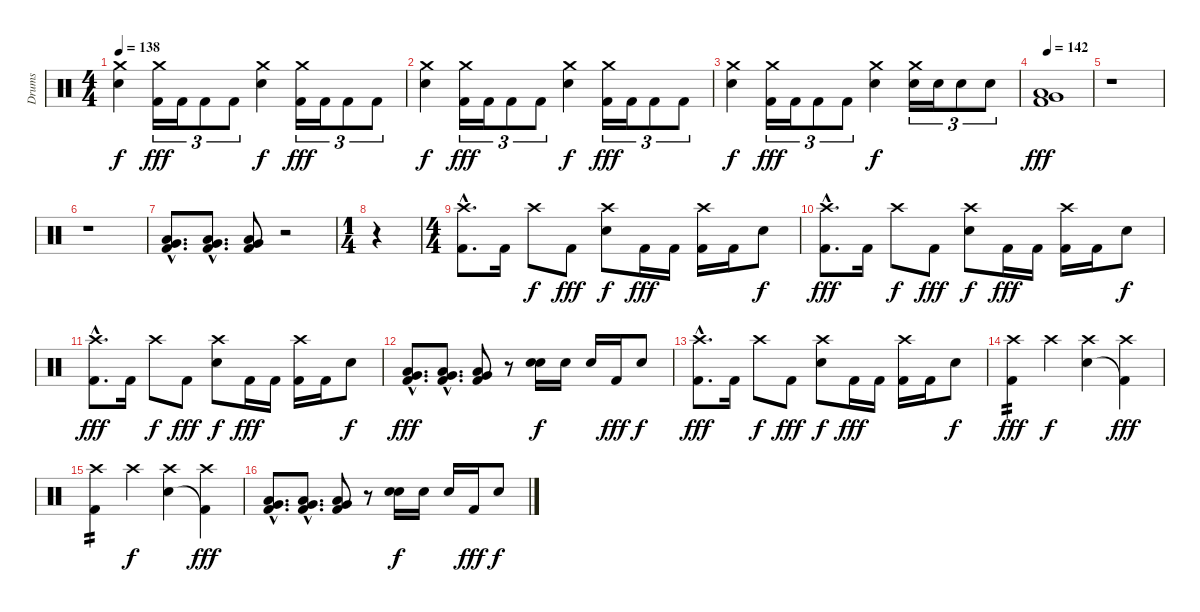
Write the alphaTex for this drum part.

\track ("Drums" "Drums") {instrument percussion}
\staff {score}
\articulation defaults
\ts (4 4)
\tempo 138
\clef neutral
\ks c
("Crash medium (hit)" "Electric Snare (hit)").4{dy f} ("Crash medium (hit)" "Kick (hit) 2").16{tu (3 2) dy fff} "Kick (hit) 2".16{tu (3 2)} "Kick (hit) 2".8{tu (3 2)} "Kick (hit) 2".8{tu (3 2)} ("Crash medium (hit)" "Electric Snare (hit)").4{dy f} ("Crash medium (hit)" "Kick (hit) 2").16{tu (3 2) dy fff} "Kick (hit) 2".16{tu (3 2)} "Kick (hit) 2".8{tu (3 2)} "Kick (hit) 2".8{tu (3 2)} |
("Crash medium (hit)" "Electric Snare (hit)").4{dy f} ("Crash medium (hit)" "Kick (hit) 2").16{tu (3 2) dy fff} "Kick (hit) 2".16{tu (3 2)} "Kick (hit) 2".8{tu (3 2)} "Kick (hit) 2".8{tu (3 2)} ("Crash medium (hit)" "Electric Snare (hit)").4{dy f} ("Crash medium (hit)" "Kick (hit) 2").16{tu (3 2) dy fff} "Kick (hit) 2".16{tu (3 2)} "Kick (hit) 2".8{tu (3 2)} "Kick (hit) 2".8{tu (3 2)} |
("Crash medium (hit)" "Electric Snare (hit)").4{dy f} ("Crash medium (hit)" "Kick (hit) 2").16{tu (3 2) dy fff} "Kick (hit) 2".16{tu (3 2)} "Kick (hit) 2".8{tu (3 2)} "Kick (hit) 2".8{tu (3 2)} ("Crash medium (hit)" "Electric Snare (hit)").4{dy f} ("Crash medium (hit)" "Electric Snare (hit)").16{tu (3 2)} "Electric Snare (hit)".16{tu (3 2)} "Electric Snare (hit)".8{tu (3 2)} "Electric Snare (hit)".8{tu (3 2)} |
\tempo 142
("Low Tom (hit)" "Very Low Tom (hit)" "Kick (hit) 2").1{dy fff} |
r.1 |
r.1 |
("Low Tom (hit)"{hac} "Very Low Tom (hit)"{hac} "Kick (hit) 2"{hac}).8{d} ("Low Tom (hit)"{hac} "Very Low Tom (hit)"{hac} "Kick (hit) 2"{hac}).8{d} ("Low Tom (hit)" "Very Low Tom (hit)" "Kick (hit) 2").8 r.2 |
\ts (1 4)
r.4 |
\ts (4 4)
("Crash high (hit)"{hac} "Kick (hit) 2"{hac}).8{d} "Kick (hit) 2".16 "Crash high (hit)".8{dy f} "Kick (hit) 2".8{dy fff} ("Crash high (hit)" "Electric Snare (hit)").8{dy f} "Kick (hit) 2".16{dy fff} "Kick (hit) 2".16 ("Crash high (hit)" "Kick (hit) 2").16 "Kick (hit) 2".16 "Electric Snare (hit)".8{dy f} |
("Crash high (hit)"{hac} "Kick (hit) 2"{hac}).8{d dy fff} "Kick (hit) 2".16 "Crash high (hit)".8{dy f} "Kick (hit) 2".8{dy fff} ("Crash high (hit)" "Electric Snare (hit)").8{dy f} "Kick (hit) 2".16{dy fff} "Kick (hit) 2".16 ("Crash high (hit)" "Kick (hit) 2").16 "Kick (hit) 2".16 "Electric Snare (hit)".8{dy f} |
("Crash high (hit)"{hac} "Kick (hit) 2"{hac}).8{d dy fff} "Kick (hit) 2".16 "Crash high (hit)".8{dy f} "Kick (hit) 2".8{dy fff} ("Crash high (hit)" "Electric Snare (hit)").8{dy f} "Kick (hit) 2".16{dy fff} "Kick (hit) 2".16 ("Crash high (hit)" "Kick (hit) 2").16 "Kick (hit) 2".16 "Electric Snare (hit)".8{dy f} |
("Low Floor Tom (hit)"{hac} "Very Low Tom (hit)"{hac} "Kick (hit) 2"{hac}).8{d dy fff} ("Low Floor Tom (hit)"{hac} "Very Low Tom (hit)"{hac} "Kick (hit) 2"{hac}).8{d} ("Low Floor Tom (hit)" "Very Low Tom (hit)" "Kick (hit) 2").8 r.8 ("Electric Snare (hit)" "Electric Snare (hit)").16{bd 480 dy f} "Electric Snare (hit)".16 "Electric Snare (hit)".16 "Kick (hit) 2".16{dy fff} "Electric Snare (hit)".8{dy f} |
("Crash high (hit)"{hac} "Kick (hit) 2"{hac}).8{d dy fff} "Kick (hit) 2".16 "Crash high (hit)".8{dy f} "Kick (hit) 2".8{dy fff} ("Crash high (hit)" "Electric Snare (hit)").8{dy f} "Kick (hit) 2".16{dy fff} "Kick (hit) 2".16 ("Crash high (hit)" "Kick (hit) 2").16 "Kick (hit) 2".16 "Electric Snare (hit)".8{dy f} |
("Crash high (hit)" "Kick (hit) 2").4{tp 2 dy fff} "Crash high (hit)".4{dy f} ("Crash high (hit)" "Electric Snare (hit)").4 ("Crash high (hit)" "Kick (hit) 2"{t}).4{dy fff} |
("Crash high (hit)" "Kick (hit) 2").4{tp 2} "Crash high (hit)".4{dy f} ("Crash high (hit)" "Electric Snare (hit)").4 ("Crash high (hit)" "Kick (hit) 2"{t}).4{dy fff} |
("Low Floor Tom (hit)"{hac} "Very Low Tom (hit)"{hac} "Kick (hit) 2"{hac}).8{d} ("Low Floor Tom (hit)"{hac} "Very Low Tom (hit)"{hac} "Kick (hit) 2"{hac}).8{d} ("Low Floor Tom (hit)" "Very Low Tom (hit)" "Kick (hit) 2").8 r.8 ("Electric Snare (hit)" "Electric Snare (hit)").16{bd 480 dy f} "Electric Snare (hit)".16 "Electric Snare (hit)".16 "Kick (hit) 2".16{dy fff} "Electric Snare (hit)".8{dy f}
